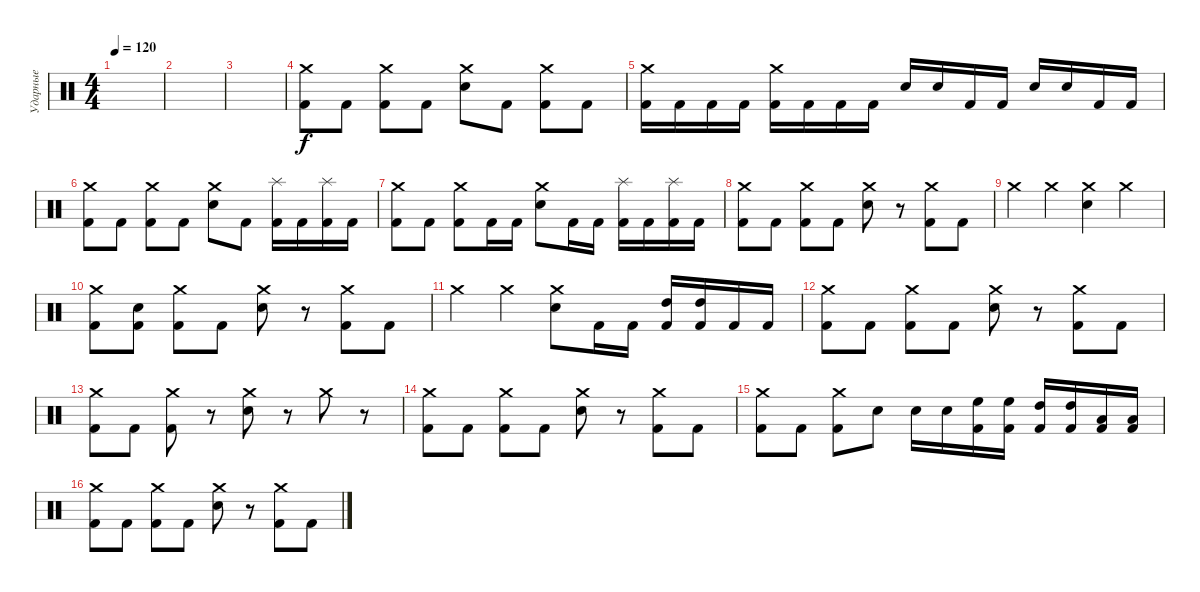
\track ("Ударные" "Ударные") {instrument percussion}
\staff {score}
\articulation defaults
\ts (4 4)
\tempo 120
\clef neutral
\ks c
|
|
|
("Kick (hit) 2" "Crash medium (hit)").8 "Kick (hit) 2".8 ("Kick (hit) 2" "Crash medium (hit)").8 "Kick (hit) 2".8 ("Electric Snare (hit)" "Crash medium (hit)").8 "Kick (hit) 2".8 ("Kick (hit) 2" "Crash medium (hit)").8 "Kick (hit) 2".8 |
("Kick (hit) 2" "Crash medium (hit)").16 "Kick (hit) 2".16 "Kick (hit) 2".16 "Kick (hit) 2".16 ("Kick (hit) 2" "Crash medium (hit)").16 "Kick (hit) 2".16 "Kick (hit) 2".16 "Kick (hit) 2".16 "Electric Snare (hit)".16 "Electric Snare (hit)".16 "Kick (hit) 2".16 "Kick (hit) 2".16 "Electric Snare (hit)".16 "Electric Snare (hit)".16 "Kick (hit) 2".16 "Kick (hit) 2".16 |
("Kick (hit) 2" "Crash medium (hit)").8 "Kick (hit) 2".8 ("Kick (hit) 2" "Crash medium (hit)").8 "Kick (hit) 2".8 ("Electric Snare (hit)" "Crash medium (hit)").8 "Kick (hit) 2".8 ("Kick (hit) 2" "Splash (hit)").16 "Kick (hit) 2".16 ("Kick (hit) 2" "Splash (hit)").16 "Kick (hit) 2".16 |
("Kick (hit) 2" "Crash medium (hit)").8 "Kick (hit) 2".8 ("Kick (hit) 2" "Crash medium (hit)").8 "Kick (hit) 2".16 "Kick (hit) 2".16 ("Electric Snare (hit)" "Crash medium (hit)").8 "Kick (hit) 2".16 "Kick (hit) 2".16 ("Kick (hit) 2" "Splash (hit)").16 "Kick (hit) 2".16 ("Kick (hit) 2" "Splash (hit)").16 "Kick (hit) 2".16 |
("Crash medium (hit)" "Kick (hit) 2").8 "Kick (hit) 2".8 ("Crash medium (hit)" "Kick (hit) 2").8 "Kick (hit) 2".8 ("Crash medium (hit)" "Electric Snare (hit)").8 r.8 ("Crash medium (hit)" "Kick (hit) 2").8 "Kick (hit) 2".8 |
"Crash medium (hit)".4 "Crash medium (hit)".4 ("Crash medium (hit)" "Electric Snare (hit)").4 "Crash medium (hit)".4 |
("Crash medium (hit)" "Kick (hit) 2").8 ("Snare (hit)" "Kick (hit) 2").8 ("Crash medium (hit)" "Kick (hit) 2").8 "Kick (hit) 2".8 ("Crash medium (hit)" "Electric Snare (hit)").8 r.8 ("Crash medium (hit)" "Kick (hit) 2").8 "Kick (hit) 2".8 |
"Crash medium (hit)".4 "Crash medium (hit)".4 ("Crash medium (hit)" "Electric Snare (hit)").8 "Kick (hit) 2".16 "Kick (hit) 2".16 ("High Tom (hit)" "Kick (hit) 2").16 ("High Tom (hit)" "Kick (hit) 2").16 "Kick (hit) 2".16 "Kick (hit) 2".16 |
("Crash medium (hit)" "Kick (hit) 2").8 "Kick (hit) 2".8 ("Crash medium (hit)" "Kick (hit) 2").8 "Kick (hit) 2".8 ("Crash medium (hit)" "Electric Snare (hit)").8 r.8 ("Crash medium (hit)" "Kick (hit) 2").8 "Kick (hit) 2".8 |
("Crash medium (hit)" "Kick (hit) 2").8 "Kick (hit) 2".8 ("Crash medium (hit)" "Kick (hit) 2").8 r.8 ("Crash medium (hit)" "Electric Snare (hit)").8 r.8 "Crash medium (hit)".8 r.8 |
("Crash medium (hit)" "Kick (hit) 2").8 "Kick (hit) 2".8 ("Crash medium (hit)" "Kick (hit) 2").8 "Kick (hit) 2".8 ("Crash medium (hit)" "Electric Snare (hit)").8 r.8 ("Crash medium (hit)" "Kick (hit) 2").8 "Kick (hit) 2".8 |
("Crash medium (hit)" "Kick (hit) 2").8 "Kick (hit) 2".8 ("Crash medium (hit)" "Kick (hit) 2").8 "Electric Snare (hit)".8 "Electric Snare (hit)".16 "Electric Snare (hit)".16 ("High Floor Tom (hit)" "Kick (hit) 2").16 ("High Floor Tom (hit)" "Kick (hit) 2").16 ("High Tom (hit)" "Kick (hit) 2").16 ("High Tom (hit)" "Kick (hit) 2").16 ("Low Tom (hit)" "Kick (hit) 2").16 ("Low Tom (hit)" "Kick (hit) 2").16 |
("Crash medium (hit)" "Kick (hit) 2").8 "Kick (hit) 2".8 ("Crash medium (hit)" "Kick (hit) 2").8 "Kick (hit) 2".8 ("Crash medium (hit)" "Electric Snare (hit)").8 r.8 ("Crash medium (hit)" "Kick (hit) 2").8 "Kick (hit) 2".8
